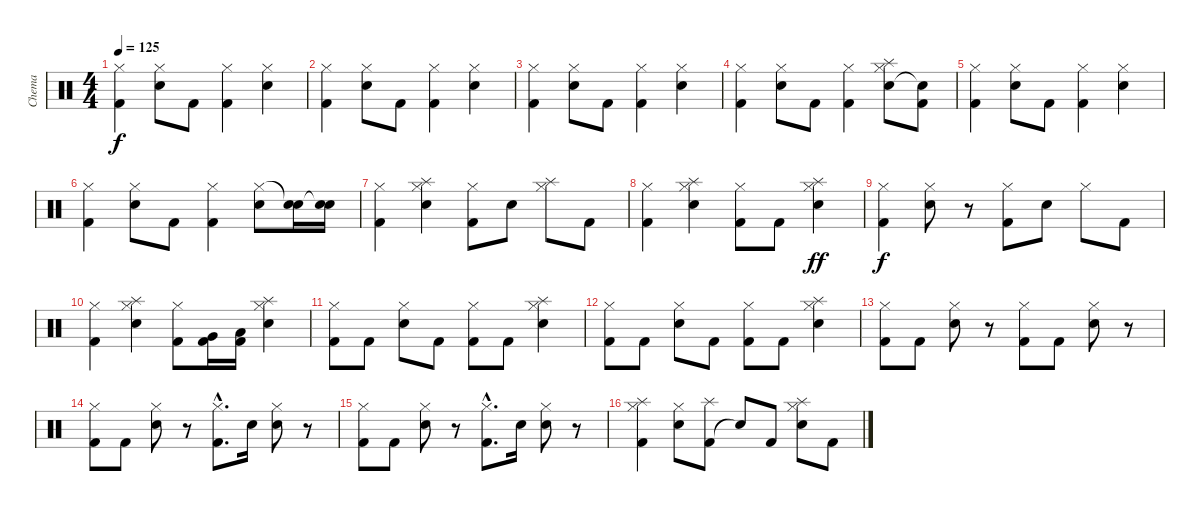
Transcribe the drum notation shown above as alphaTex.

\track ("Chema" "Chema") {instrument percussion}
\staff {score}
\articulation defaults
\ts (4 4)
\tempo 125
\clef neutral
\ks c
("Hi-Hat (closed)" "Kick (hit) 2").4{dy f} ("Hi-Hat (closed)" "Snare (hit) 2").8 "Kick (hit) 2".8 ("Hi-Hat (closed)" "Kick (hit) 2").4 ("Hi-Hat (closed)" "Snare (hit) 2").4 |
("Hi-Hat (closed)" "Kick (hit) 2").4 ("Hi-Hat (closed)" "Snare (hit) 2").8 "Kick (hit) 2".8 ("Hi-Hat (closed)" "Kick (hit) 2").4 ("Hi-Hat (closed)" "Snare (hit) 2").4 |
("Hi-Hat (closed)" "Kick (hit) 2").4 ("Hi-Hat (closed)" "Snare (hit) 2").8 "Kick (hit) 2".8 ("Hi-Hat (closed)" "Kick (hit) 2").4 ("Hi-Hat (closed)" "Snare (hit) 2").4 |
("Hi-Hat (closed)" "Kick (hit) 2").4 ("Hi-Hat (closed)" "Snare (hit) 2").8 "Kick (hit) 2".8 ("Hi-Hat (closed)" "Kick (hit) 2").4 ("Hi-Hat (closed)" "Snare (hit) 2" "Splash (hit)").8 ("Kick (hit) 2" "Snare (hit)"{t}).8 |
("Hi-Hat (closed)" "Kick (hit) 2").4 ("Hi-Hat (closed)" "Snare (hit) 2").8 "Kick (hit) 2".8 ("Hi-Hat (closed)" "Kick (hit) 2").4 ("Hi-Hat (closed)" "Snare (hit) 2").4 |
("Hi-Hat (closed)" "Kick (hit) 2").4 ("Hi-Hat (closed)" "Snare (hit) 2").8 "Kick (hit) 2".8 ("Hi-Hat (closed)" "Kick (hit) 2").4 ("Hi-Hat (closed)" "Snare (hit) 2").8 ("Snare (hit)"{t} "Snare (hit) 2").16 ("Snare (hit)"{t} "Snare (hit) 2").16 |
("Hi-Hat (closed)" "Kick (hit) 2").4 ("Hi-Hat (closed)" "Snare (hit) 2" "Splash (hit)").4 ("Hi-Hat (closed)" "Kick (hit) 2").8 "Snare (hit) 2".8 ("Hi-Hat (closed)" "Splash (hit)").8 "Kick (hit) 2".8 |
("Hi-Hat (closed)" "Kick (hit) 2").4 ("Hi-Hat (closed)" "Snare (hit) 2" "Splash (hit)").4 ("Hi-Hat (closed)" "Kick (hit) 2").8 "Kick (hit) 2".8 ("Hi-Hat (closed)" "Snare (hit) 2" "Splash (hit)").4{dy ff} |
("Hi-Hat (closed)" "Kick (hit) 2").4{dy f} ("Hi-Hat (closed)" "Snare (hit) 2").8 r.8 ("Hi-Hat (closed)" "Kick (hit) 2").8 "Snare (hit) 2".8 "Hi-Hat (closed)".8 "Kick (hit) 2".8 |
("Hi-Hat (closed)" "Kick (hit) 2").4 ("Hi-Hat (closed)" "Snare (hit) 2" "Splash (hit)").4 ("Hi-Hat (closed)" "Kick (hit) 2").8 ("Kick (hit) 2" "Very Low Tom (hit)").16 ("Kick (hit) 2" "Low Tom (hit)").16 ("Hi-Hat (closed)" "Snare (hit) 2" "Splash (hit)").4 |
("Hi-Hat (closed)" "Kick (hit) 2").8 "Kick (hit) 2".8 ("Hi-Hat (closed)" "Snare (hit) 2").8 "Kick (hit) 2".8 ("Hi-Hat (closed)" "Kick (hit) 2").8 "Kick (hit) 2".8 ("Hi-Hat (closed)" "Snare (hit) 2" "Splash (hit)").4 |
("Hi-Hat (closed)" "Kick (hit) 2").8 "Kick (hit) 2".8 ("Hi-Hat (closed)" "Snare (hit) 2").8 "Kick (hit) 2".8 ("Hi-Hat (closed)" "Kick (hit) 2").8 "Kick (hit) 2".8 ("Hi-Hat (closed)" "Snare (hit) 2" "Splash (hit)").4 |
("Hi-Hat (closed)" "Kick (hit) 2").8{volume 14} "Kick (hit) 2".8 ("Hi-Hat (closed)" "Snare (hit) 2").8 r.8 ("Hi-Hat (closed)" "Kick (hit) 2").8 "Kick (hit) 2".8 ("Hi-Hat (closed)" "Snare (hit) 2").8 r.8 |
("Hi-Hat (closed)" "Kick (hit) 2").8 "Kick (hit) 2".8 ("Hi-Hat (closed)" "Snare (hit) 2").8 r.8 ("Hi-Hat (closed)"{hac} "Kick (hit) 2"{hac}).8{d} "Snare (hit) 2".16 ("Hi-Hat (closed)" "Snare (hit) 2").8 r.8 |
("Hi-Hat (closed)" "Kick (hit) 2").8 "Kick (hit) 2".8 ("Hi-Hat (closed)" "Snare (hit) 2").8 r.8 ("Hi-Hat (closed)"{hac} "Kick (hit) 2"{hac}).8{d} "Snare (hit) 2".16 ("Hi-Hat (closed)" "Snare (hit) 2").8 r.8 |
("Hi-Hat (closed)" "Kick (hit) 2" "Splash (hit)").4 ("Hi-Hat (closed)" "Snare (hit) 2").8 ("Kick (hit) 2" "Splash (hit)").8 "Snare (hit)"{t}.8 "Kick (hit) 2".8 ("Hi-Hat (closed)" "Snare (hit) 2" "Splash (hit)").8 "Kick (hit) 2".8
